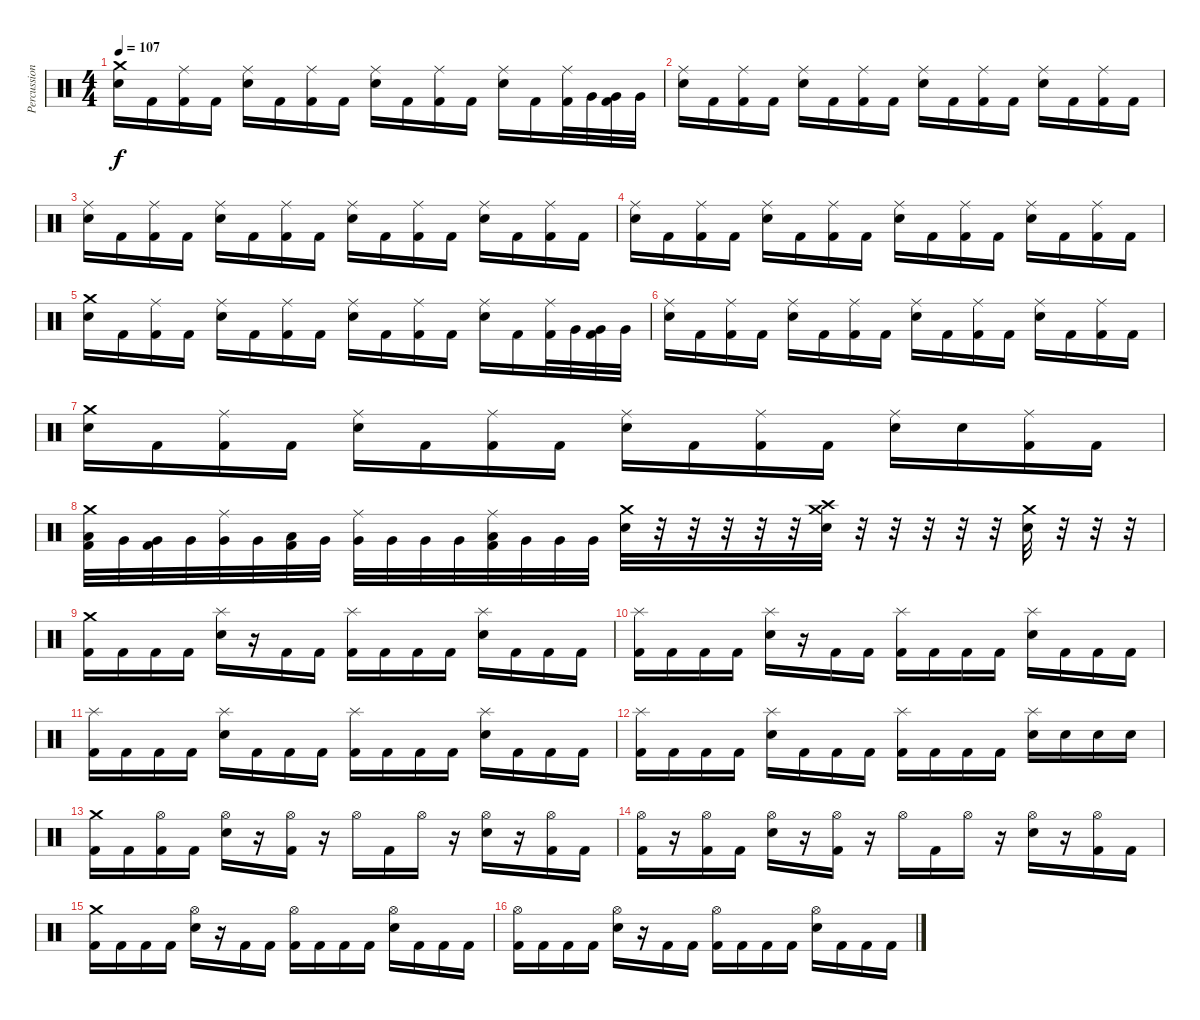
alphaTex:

\track ("Percussion" "Percussion") {instrument percussion}
\staff {score}
\articulation defaults
\ts (4 4)
\tempo 107
\clef neutral
\ks c
("Crash medium (hit)" "Electric Snare (hit)").16{dy f} "Kick (hit) 2".16 ("Ride (middle)" "Kick (hit) 2").16 "Kick (hit) 2".16 ("Ride (middle)" "Electric Snare (hit)").16 "Kick (hit) 2".16 ("Ride (middle)" "Kick (hit) 2").16 "Kick (hit) 2".16 ("Ride (middle)" "Electric Snare (hit)").16 "Kick (hit) 2".16 ("Ride (middle)" "Kick (hit) 2").16 "Kick (hit) 2".16 ("Ride (middle)" "Electric Snare (hit)").16 "Kick (hit) 2".16 ("Ride (middle)" "Kick (hit) 2").32 "Very Low Tom (hit)".32 ("Very Low Tom (hit)" "Kick (hit) 2").32 "Very Low Tom (hit)".32 |
("Ride (middle)" "Electric Snare (hit)").16 "Kick (hit) 2".16 ("Ride (middle)" "Kick (hit) 2").16 "Kick (hit) 2".16 ("Ride (middle)" "Electric Snare (hit)").16 "Kick (hit) 2".16 ("Ride (middle)" "Kick (hit) 2").16 "Kick (hit) 2".16 ("Ride (middle)" "Electric Snare (hit)").16 "Kick (hit) 2".16 ("Ride (middle)" "Kick (hit) 2").16 "Kick (hit) 2".16 ("Ride (middle)" "Electric Snare (hit)").16 "Kick (hit) 2".16 ("Ride (middle)" "Kick (hit) 2").16 "Kick (hit) 2".16 |
("Ride (middle)" "Electric Snare (hit)").16 "Kick (hit) 2".16 ("Ride (middle)" "Kick (hit) 2").16 "Kick (hit) 2".16 ("Ride (middle)" "Electric Snare (hit)").16 "Kick (hit) 2".16 ("Ride (middle)" "Kick (hit) 2").16 "Kick (hit) 2".16 ("Ride (middle)" "Electric Snare (hit)").16 "Kick (hit) 2".16 ("Ride (middle)" "Kick (hit) 2").16 "Kick (hit) 2".16 ("Ride (middle)" "Electric Snare (hit)").16 "Kick (hit) 2".16 ("Ride (middle)" "Kick (hit) 2").16 "Kick (hit) 2".16 |
("Ride (middle)" "Electric Snare (hit)").16 "Kick (hit) 2".16 ("Ride (middle)" "Kick (hit) 2").16 "Kick (hit) 2".16 ("Ride (middle)" "Electric Snare (hit)").16 "Kick (hit) 2".16 ("Ride (middle)" "Kick (hit) 2").16 "Kick (hit) 2".16 ("Ride (middle)" "Electric Snare (hit)").16 "Kick (hit) 2".16 ("Ride (middle)" "Kick (hit) 2").16 "Kick (hit) 2".16 ("Ride (middle)" "Electric Snare (hit)").16 "Kick (hit) 2".16 ("Ride (middle)" "Kick (hit) 2").16 "Kick (hit) 2".16 |
("Crash medium (hit)" "Electric Snare (hit)").16 "Kick (hit) 2".16 ("Ride (middle)" "Kick (hit) 2").16 "Kick (hit) 2".16 ("Ride (middle)" "Electric Snare (hit)").16 "Kick (hit) 2".16 ("Ride (middle)" "Kick (hit) 2").16 "Kick (hit) 2".16 ("Ride (middle)" "Electric Snare (hit)").16 "Kick (hit) 2".16 ("Ride (middle)" "Kick (hit) 2").16 "Kick (hit) 2".16 ("Ride (middle)" "Electric Snare (hit)").16 "Kick (hit) 2".16 ("Ride (middle)" "Kick (hit) 2").32 "Very Low Tom (hit)".32 ("Very Low Tom (hit)" "Kick (hit) 2").32 "Very Low Tom (hit)".32 |
("Ride (middle)" "Electric Snare (hit)").16 "Kick (hit) 2".16 ("Ride (middle)" "Kick (hit) 2").16 "Kick (hit) 2".16 ("Ride (middle)" "Electric Snare (hit)").16 "Kick (hit) 2".16 ("Ride (middle)" "Kick (hit) 2").16 "Kick (hit) 2".16 ("Ride (middle)" "Electric Snare (hit)").16 "Kick (hit) 2".16 ("Ride (middle)" "Kick (hit) 2").16 "Kick (hit) 2".16 ("Ride (middle)" "Electric Snare (hit)").16 "Kick (hit) 2".16 ("Ride (middle)" "Kick (hit) 2").16 "Kick (hit) 2".16 |
("Crash medium (hit)" "Electric Snare (hit)").16 "Kick (hit) 2".16 ("Ride (middle)" "Kick (hit) 2").16 "Kick (hit) 2".16 ("Ride (middle)" "Electric Snare (hit)").16 "Kick (hit) 2".16 ("Ride (middle)" "Kick (hit) 2").16 "Kick (hit) 2".16 ("Ride (middle)" "Electric Snare (hit)").16 "Kick (hit) 2".16 ("Ride (middle)" "Kick (hit) 2").16 "Kick (hit) 2".16 ("Ride (middle)" "Electric Snare (hit)").16 "Electric Snare (hit)".16 ("Ride (middle)" "Kick (hit) 2").16 "Kick (hit) 2".16 |
("Crash medium (hit)" "Low Tom (hit)" "Kick (hit) 2").32 "Very Low Tom (hit)".32 ("Very Low Tom (hit)" "Kick (hit) 2").32 "Very Low Tom (hit)".32 ("Ride (middle)" "Very Low Tom (hit)").32 "Very Low Tom (hit)".32 ("Low Tom (hit)" "Kick (hit) 2").32 "Very Low Tom (hit)".32 ("Ride (middle)" "Very Low Tom (hit)").32 "Very Low Tom (hit)".32 "Very Low Tom (hit)".32 "Very Low Tom (hit)".32 ("Ride (middle)" "Low Tom (hit)" "Kick (hit) 2").32 "Very Low Tom (hit)".32 "Very Low Tom (hit)".32 "Very Low Tom (hit)".32 ("Crash medium (hit)" "Electric Snare (hit)").32 r.32 r.32 r.32 r.32 r.32 ("Crash medium (hit)" "Crash high (hit)" "Electric Snare (hit)").32 r.32 r.32 r.32 r.32 r.32 ("Crash medium (hit)" "Electric Snare (hit)").32 r.32 r.32 r.32 |
("Crash medium (hit)" "Kick (hit) 2").16 "Kick (hit) 2".16 "Kick (hit) 2".16 "Kick (hit) 2".16 ("Splash (hit)" "Electric Snare (hit)").16 r.16 "Kick (hit) 2".16 "Kick (hit) 2".16 ("Splash (hit)" "Kick (hit) 2").16 "Kick (hit) 2".16 "Kick (hit) 2".16 "Kick (hit) 2".16 ("Splash (hit)" "Electric Snare (hit)").16 "Kick (hit) 2".16 "Kick (hit) 2".16 "Kick (hit) 2".16 |
("Splash (hit)" "Kick (hit) 2").16 "Kick (hit) 2".16 "Kick (hit) 2".16 "Kick (hit) 2".16 ("Splash (hit)" "Electric Snare (hit)").16 r.16 "Kick (hit) 2".16 "Kick (hit) 2".16 ("Splash (hit)" "Kick (hit) 2").16 "Kick (hit) 2".16 "Kick (hit) 2".16 "Kick (hit) 2".16 ("Splash (hit)" "Electric Snare (hit)").16 "Kick (hit) 2".16 "Kick (hit) 2".16 "Kick (hit) 2".16 |
("Splash (hit)" "Kick (hit) 2").16 "Kick (hit) 2".16 "Kick (hit) 2".16 "Kick (hit) 2".16 ("Splash (hit)" "Electric Snare (hit)").16 "Kick (hit) 2".16 "Kick (hit) 2".16 "Kick (hit) 2".16 ("Splash (hit)" "Kick (hit) 2").16 "Kick (hit) 2".16 "Kick (hit) 2".16 "Kick (hit) 2".16 ("Splash (hit)" "Electric Snare (hit)").16 "Kick (hit) 2".16 "Kick (hit) 2".16 "Kick (hit) 2".16 |
("Splash (hit)" "Kick (hit) 2").16 "Kick (hit) 2".16 "Kick (hit) 2".16 "Kick (hit) 2".16 ("Splash (hit)" "Electric Snare (hit)").16 "Kick (hit) 2".16 "Kick (hit) 2".16 "Kick (hit) 2".16 ("Splash (hit)" "Kick (hit) 2").16 "Kick (hit) 2".16 "Kick (hit) 2".16 "Kick (hit) 2".16 ("Splash (hit)" "Electric Snare (hit)").16 "Electric Snare (hit)".16 "Electric Snare (hit)".16 "Electric Snare (hit)".16 |
("Crash medium (hit)" "Kick (hit) 2").16 "Kick (hit) 2".16 ("Hi-Hat (open)" "Kick (hit) 2").16 "Kick (hit) 2".16 ("Hi-Hat (open)" "Electric Snare (hit)").16 r.16 ("Hi-Hat (open)" "Kick (hit) 2").16 r.16 "Hi-Hat (open)".16 "Kick (hit) 2".16 "Hi-Hat (open)".16 r.16 ("Hi-Hat (open)" "Electric Snare (hit)").16 r.16 ("Hi-Hat (open)" "Kick (hit) 2").16 "Kick (hit) 2".16 |
("Hi-Hat (open)" "Kick (hit) 2").16 r.16 ("Hi-Hat (open)" "Kick (hit) 2").16 "Kick (hit) 2".16 ("Hi-Hat (open)" "Electric Snare (hit)").16 r.16 ("Hi-Hat (open)" "Kick (hit) 2").16 r.16 "Hi-Hat (open)".16 "Kick (hit) 2".16 "Hi-Hat (open)".16 r.16 ("Hi-Hat (open)" "Electric Snare (hit)").16 r.16 ("Hi-Hat (open)" "Kick (hit) 2").16 "Kick (hit) 2".16 |
("Crash medium (hit)" "Kick (hit) 2").16 "Kick (hit) 2".16 "Kick (hit) 2".16 "Kick (hit) 2".16 ("Hi-Hat (open)" "Electric Snare (hit)").16 r.16 "Kick (hit) 2".16 "Kick (hit) 2".16 ("Hi-Hat (open)" "Kick (hit) 2").16 "Kick (hit) 2".16 "Kick (hit) 2".16 "Kick (hit) 2".16 ("Hi-Hat (open)" "Electric Snare (hit)").16 "Kick (hit) 2".16 "Kick (hit) 2".16 "Kick (hit) 2".16 |
("Hi-Hat (open)" "Kick (hit) 2").16 "Kick (hit) 2".16 "Kick (hit) 2".16 "Kick (hit) 2".16 ("Hi-Hat (open)" "Electric Snare (hit)").16 r.16 "Kick (hit) 2".16 "Kick (hit) 2".16 ("Hi-Hat (open)" "Kick (hit) 2").16 "Kick (hit) 2".16 "Kick (hit) 2".16 "Kick (hit) 2".16 ("Hi-Hat (open)" "Electric Snare (hit)").16 "Kick (hit) 2".16 "Kick (hit) 2".16 "Kick (hit) 2".16
